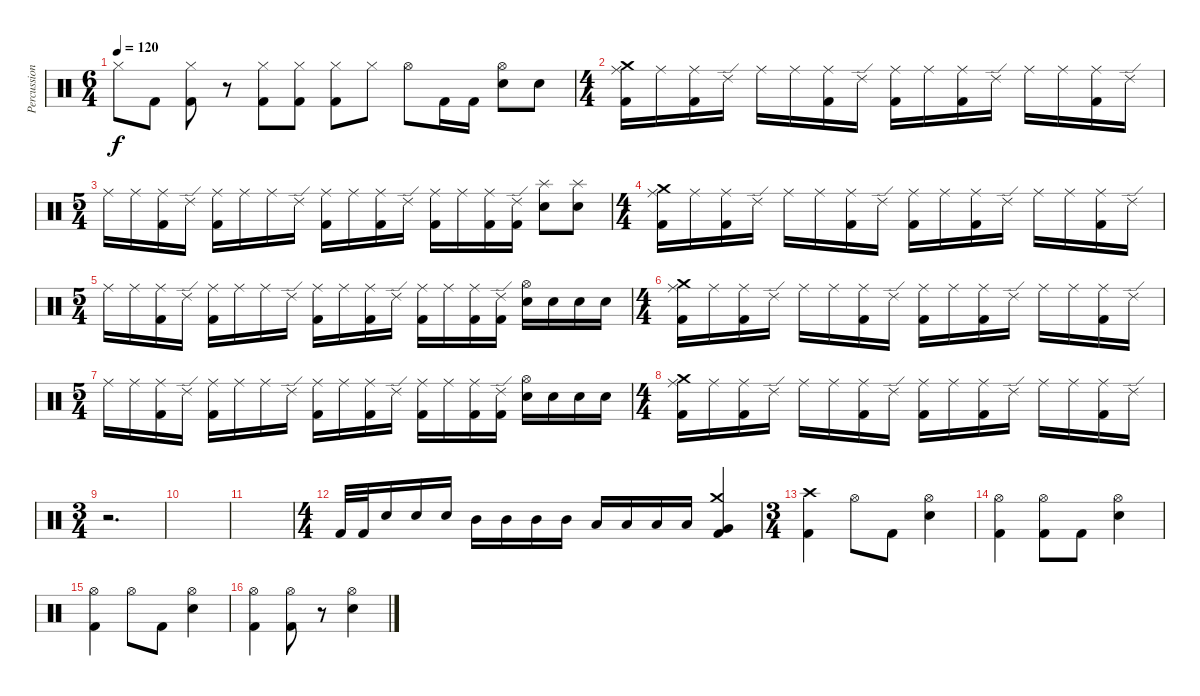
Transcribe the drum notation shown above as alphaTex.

\track ("Percussion" "Percussion") {instrument percussion}
\staff {score}
\articulation defaults
\ts (6 4)
\tempo 120
\clef neutral
\ks c "Hi-Hat (closed)".8{dy f} "Kick (hit) 2".8
("Hi-Hat (closed)" "Kick (hit) 2").8 r.8 ("Hi-Hat (closed)" "Kick (hit) 2").8 ("Hi-Hat (closed)" "Kick (hit) 2").8 ("Hi-Hat (closed)" "Kick (hit) 2").8 "Hi-Hat (closed)".8 "Hi-Hat (open)".8 "Kick (hit) 2".16 "Kick (hit) 2".16 ("Electric Snare (hit)" "Hi-Hat (open)").8 "Electric Snare (hit)".8 |
\ts (4 4)
("Crash medium (hit)" "Ride (middle)" "Kick (hit) 2").16 "Ride (middle)".16 ("Ride (middle)" "Kick (hit) 2").16 "Ride (edge) 2".16 "Ride (middle)".16 "Ride (middle)".16 ("Ride (middle)" "Kick (hit) 2").16 "Ride (edge) 2".16 ("Ride (middle)" "Kick (hit) 2").16 "Ride (middle)".16 ("Ride (middle)" "Kick (hit) 2").16 "Ride (edge) 2".16 "Ride (middle)".16 "Ride (middle)".16 ("Ride (middle)" "Kick (hit) 2").16 "Ride (edge) 2".16 |
\ts (5 4)
"Ride (middle)".16 "Ride (middle)".16 ("Ride (middle)" "Kick (hit) 2").16 "Ride (edge) 2".16 ("Ride (middle)" "Kick (hit) 2").16 "Ride (middle)".16 "Ride (middle)".16 "Ride (edge) 2".16 ("Ride (middle)" "Kick (hit) 2").16 "Ride (middle)".16 ("Ride (middle)" "Kick (hit) 2").16 "Ride (edge) 2".16 ("Ride (middle)" "Kick (hit) 2").16 "Ride (middle)".16 ("Ride (middle)" "Kick (hit) 2").16 ("Ride (edge) 2" "Kick (hit) 2").16 ("Splash (hit)" "Electric Snare (hit)").8 ("Splash (hit)" "Electric Snare (hit)").8 |
\ts (4 4)
("Crash medium (hit)" "Ride (middle)" "Kick (hit) 2").16 "Ride (middle)".16 ("Ride (middle)" "Kick (hit) 2").16 "Ride (edge) 2".16 "Ride (middle)".16 "Ride (middle)".16 ("Ride (middle)" "Kick (hit) 2").16 "Ride (edge) 2".16 ("Ride (middle)" "Kick (hit) 2").16 "Ride (middle)".16 ("Ride (middle)" "Kick (hit) 2").16 "Ride (edge) 2".16 "Ride (middle)".16 "Ride (middle)".16 ("Ride (middle)" "Kick (hit) 2").16 "Ride (edge) 2".16 |
\ts (5 4)
"Ride (middle)".16 "Ride (middle)".16 ("Ride (middle)" "Kick (hit) 2").16 "Ride (edge) 2".16 ("Ride (middle)" "Kick (hit) 2").16 "Ride (middle)".16 "Ride (middle)".16 "Ride (edge) 2".16 ("Ride (middle)" "Kick (hit) 2").16 "Ride (middle)".16 ("Ride (middle)" "Kick (hit) 2").16 "Ride (edge) 2".16 ("Ride (middle)" "Kick (hit) 2").16 "Ride (middle)".16 ("Ride (middle)" "Kick (hit) 2").16 ("Ride (edge) 2" "Kick (hit) 2").16 ("Electric Snare (hit)" "Hi-Hat (open)").16 "Electric Snare (hit)".16 "Electric Snare (hit)".16 "Electric Snare (hit)".16 |
\ts (4 4)
("Crash medium (hit)" "Ride (middle)" "Kick (hit) 2").16 "Ride (middle)".16 ("Ride (middle)" "Kick (hit) 2").16 "Ride (edge) 2".16 "Ride (middle)".16 "Ride (middle)".16 ("Ride (middle)" "Kick (hit) 2").16 "Ride (edge) 2".16 ("Ride (middle)" "Kick (hit) 2").16 "Ride (middle)".16 ("Ride (middle)" "Kick (hit) 2").16 "Ride (edge) 2".16 "Ride (middle)".16 "Ride (middle)".16 ("Ride (middle)" "Kick (hit) 2").16 "Ride (edge) 2".16 |
\ts (5 4)
"Ride (middle)".16 "Ride (middle)".16 ("Ride (middle)" "Kick (hit) 2").16 "Ride (edge) 2".16 ("Ride (middle)" "Kick (hit) 2").16 "Ride (middle)".16 "Ride (middle)".16 "Ride (edge) 2".16 ("Ride (middle)" "Kick (hit) 2").16 "Ride (middle)".16 ("Ride (middle)" "Kick (hit) 2").16 "Ride (edge) 2".16 ("Ride (middle)" "Kick (hit) 2").16 "Ride (middle)".16 ("Ride (middle)" "Kick (hit) 2").16 ("Ride (edge) 2" "Kick (hit) 2").16 ("Electric Snare (hit)" "Hi-Hat (open)").16 "Electric Snare (hit)".16 "Electric Snare (hit)".16 "Electric Snare (hit)".16 |
\ts (4 4)
("Crash medium (hit)" "Ride (middle)" "Kick (hit) 2").16 "Ride (middle)".16 ("Ride (middle)" "Kick (hit) 2").16 "Ride (edge) 2".16 "Ride (middle)".16 "Ride (middle)".16 ("Ride (middle)" "Kick (hit) 2").16 "Ride (edge) 2".16 ("Ride (middle)" "Kick (hit) 2").16 "Ride (middle)".16 ("Ride (middle)" "Kick (hit) 2").16 "Ride (edge) 2".16 "Ride (middle)".16 "Ride (middle)".16 ("Ride (middle)" "Kick (hit) 2").16 "Ride (edge) 2".16 |
\ts (3 4)
r.2{d} |
|
|
\ts (4 4)
"Kick (hit) 2".32 "Kick (hit) 2".32 "Electric Snare (hit)".16 "Electric Snare (hit)".16 "Electric Snare (hit)".16 "Mid Tom (hit)".16 "Mid Tom (hit)".16 "Mid Tom (hit)".16 "Mid Tom (hit)".16 "Low Tom (hit)".16 "Low Tom (hit)".16 "Low Tom (hit)".16 "Low Tom (hit)".16 ("Crash medium (hit)" "Very Low Tom (hit)" "Kick (hit) 2").4 |
\ts (3 4)
("Crash high (hit)" "Kick (hit) 2").4 "Hi-Hat (open)".8 "Kick (hit) 2".8 ("Hi-Hat (open)" "Electric Snare (hit)").4 |
("Hi-Hat (open)" "Kick (hit) 2").4 ("Hi-Hat (open)" "Kick (hit) 2").8 "Kick (hit) 2".8 ("Hi-Hat (open)" "Electric Snare (hit)").4 |
("Hi-Hat (open)" "Kick (hit) 2").4 "Hi-Hat (open)".8 "Kick (hit) 2".8 ("Hi-Hat (open)" "Electric Snare (hit)").4 |
("Hi-Hat (open)" "Kick (hit) 2").4 ("Hi-Hat (open)" "Kick (hit) 2").8 r.8 ("Hi-Hat (open)" "Electric Snare (hit)").4
